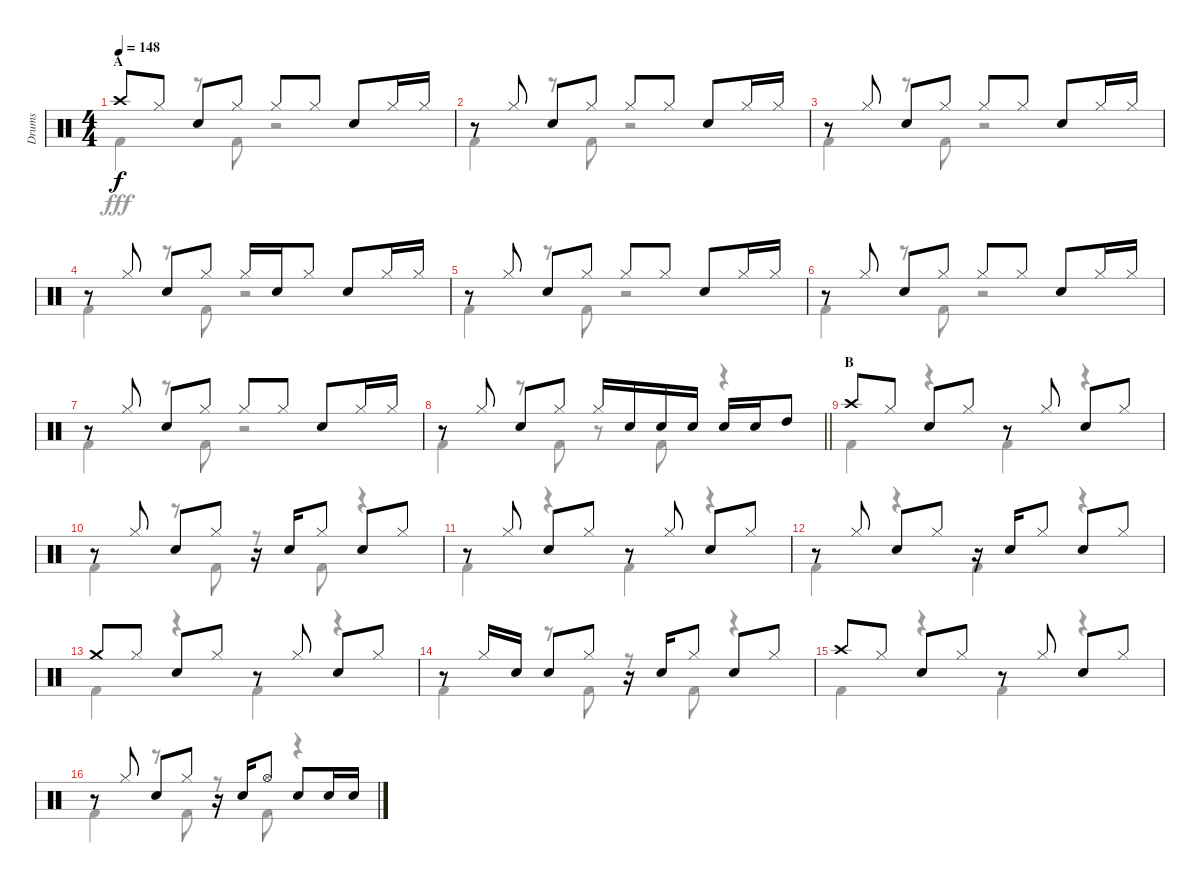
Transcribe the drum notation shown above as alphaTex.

\track ("Drums" "Drums") {instrument percussion}
\staff {score}
\articulation defaults
\voice
\ts (4 4)
\section ("" "A")
\tempo 148
\clef neutral
\ks c "Crash high (hit)".8{dy f} "Hi-Hat (closed)".8 "Snare (hit) 2".8 "Hi-Hat (closed)".8 "Hi-Hat (closed)".8 "Hi-Hat (closed)".8 "Snare (hit) 2".8 "Hi-Hat (closed)".16 "Hi-Hat (closed)".16
|
r.8 "Hi-Hat (closed)".8 "Snare (hit) 2".8 "Hi-Hat (closed)".8 "Hi-Hat (closed)".8 "Hi-Hat (closed)".8 "Snare (hit) 2".8 "Hi-Hat (closed)".16 "Hi-Hat (closed)".16 |
r.8 "Hi-Hat (closed)".8 "Snare (hit) 2".8 "Hi-Hat (closed)".8 "Hi-Hat (closed)".8 "Hi-Hat (closed)".8 "Snare (hit) 2".8 "Hi-Hat (closed)".16 "Hi-Hat (closed)".16 |
r.8 "Hi-Hat (closed)".8 "Snare (hit) 2".8 "Hi-Hat (closed)".8 "Hi-Hat (closed)".16 "Snare (hit) 2".16 "Hi-Hat (closed)".8 "Snare (hit) 2".8 "Hi-Hat (closed)".16 "Hi-Hat (closed)".16 |
r.8 "Hi-Hat (closed)".8 "Snare (hit) 2".8 "Hi-Hat (closed)".8 "Hi-Hat (closed)".8 "Hi-Hat (closed)".8 "Snare (hit) 2".8 "Hi-Hat (closed)".16 "Hi-Hat (closed)".16 |
r.8 "Hi-Hat (closed)".8 "Snare (hit) 2".8 "Hi-Hat (closed)".8 "Hi-Hat (closed)".8 "Hi-Hat (closed)".8 "Snare (hit) 2".8 "Hi-Hat (closed)".16 "Hi-Hat (closed)".16 |
r.8 "Hi-Hat (closed)".8 "Snare (hit) 2".8 "Hi-Hat (closed)".8 "Hi-Hat (closed)".8 "Hi-Hat (closed)".8 "Snare (hit) 2".8 "Hi-Hat (closed)".16 "Hi-Hat (closed)".16 |
\barLineRight lightlight
r.8 "Hi-Hat (closed)".8 "Snare (hit) 2".8 "Hi-Hat (closed)".8 "Hi-Hat (closed)".16 "Snare (hit) 2".16 "Snare (hit) 2".16 "Snare (hit) 2".16 "Snare (hit) 2".16 "Snare (hit) 2".16 "High Tom (hit)".8 |
\section ("" "B")
"Crash high (hit)".8 "Hi-Hat (closed)".8 "Snare (hit) 2".8 "Hi-Hat (closed)".8 r.8 "Hi-Hat (closed)".8 "Snare (hit) 2".8 "Hi-Hat (closed)".8 |
r.8 "Hi-Hat (closed)".8 "Snare (hit) 2".8 "Hi-Hat (closed)".8 r.16 "Snare (hit) 2".16 "Hi-Hat (closed)".8 "Snare (hit) 2".8 "Hi-Hat (closed)".8 |
r.8 "Hi-Hat (closed)".8 "Snare (hit) 2".8 "Hi-Hat (closed)".8 r.8 "Hi-Hat (closed)".8 "Snare (hit) 2".8 "Hi-Hat (closed)".8 |
r.8 "Hi-Hat (closed)".8 "Snare (hit) 2".8 "Hi-Hat (closed)".8 r.16 "Snare (hit) 2".16 "Hi-Hat (closed)".8 "Snare (hit) 2".8 "Hi-Hat (closed)".8 |
"Crash medium (hit)".8 "Hi-Hat (closed)".8 "Snare (hit) 2".8 "Hi-Hat (closed)".8 r.8 "Hi-Hat (closed)".8 "Snare (hit) 2".8 "Hi-Hat (closed)".8 |
r.8 "Hi-Hat (closed)".16 "Snare (hit) 2".16 "Snare (hit) 2".8 "Hi-Hat (closed)".8 r.16 "Snare (hit) 2".16 "Hi-Hat (closed)".8 "Snare (hit) 2".8 "Hi-Hat (closed)".8 |
"Crash high (hit)".8 "Hi-Hat (closed)".8 "Snare (hit) 2".8 "Hi-Hat (closed)".8 r.8 "Hi-Hat (closed)".8 "Snare (hit) 2".8 "Hi-Hat (closed)".8 |
r.8 "Hi-Hat (closed)".8 "Snare (hit) 2".8 "Hi-Hat (closed)".8 r.16 "Snare (hit) 2".16 "Hi-Hat (open)".8 "Snare (hit) 2".8 "Snare (hit) 2".16 "Snare (hit) 2".16
\voice
\clef neutral
\ottava regular
\simile none
\ks c "Kick (hit) 2".4{dy fff}
r.8 "Kick (hit) 2".8 r.2 |
"Kick (hit) 2".4 r.8 "Kick (hit) 2".8 r.2 |
"Kick (hit) 2".4 r.8 "Kick (hit) 2".8 r.2 |
"Kick (hit) 2".4 r.8 "Kick (hit) 2".8 r.2 |
"Kick (hit) 2".4 r.8 "Kick (hit) 2".8 r.2 |
"Kick (hit) 2".4 r.8 "Kick (hit) 2".8 r.2 |
"Kick (hit) 2".4 r.8 "Kick (hit) 2".8 r.2 |
\barLineRight lightlight "Kick (hit) 2".4
r.8 "Kick (hit) 2".8 r.8 "Kick (hit) 2".8 r.4 |
"Kick (hit) 2".4 r.4 "Kick (hit) 2".4 r.4 |
"Kick (hit) 2".4 r.8 "Kick (hit) 2".8 r.8 "Kick (hit) 2".8 r.4 |
"Kick (hit) 2".4 r.4 "Kick (hit) 2".4 r.4 |
"Kick (hit) 2".4 r.4 "Kick (hit) 2".4 r.4 |
"Kick (hit) 2".4 r.4 "Kick (hit) 2".4 r.4 |
"Kick (hit) 2".4 r.8 "Kick (hit) 2".8 r.8 "Kick (hit) 2".8 r.4 |
"Kick (hit) 2".4 r.4 "Kick (hit) 2".4 r.4 |
"Kick (hit) 2".4 r.8 "Kick (hit) 2".8 r.8 "Kick (hit) 2".8 r.4
